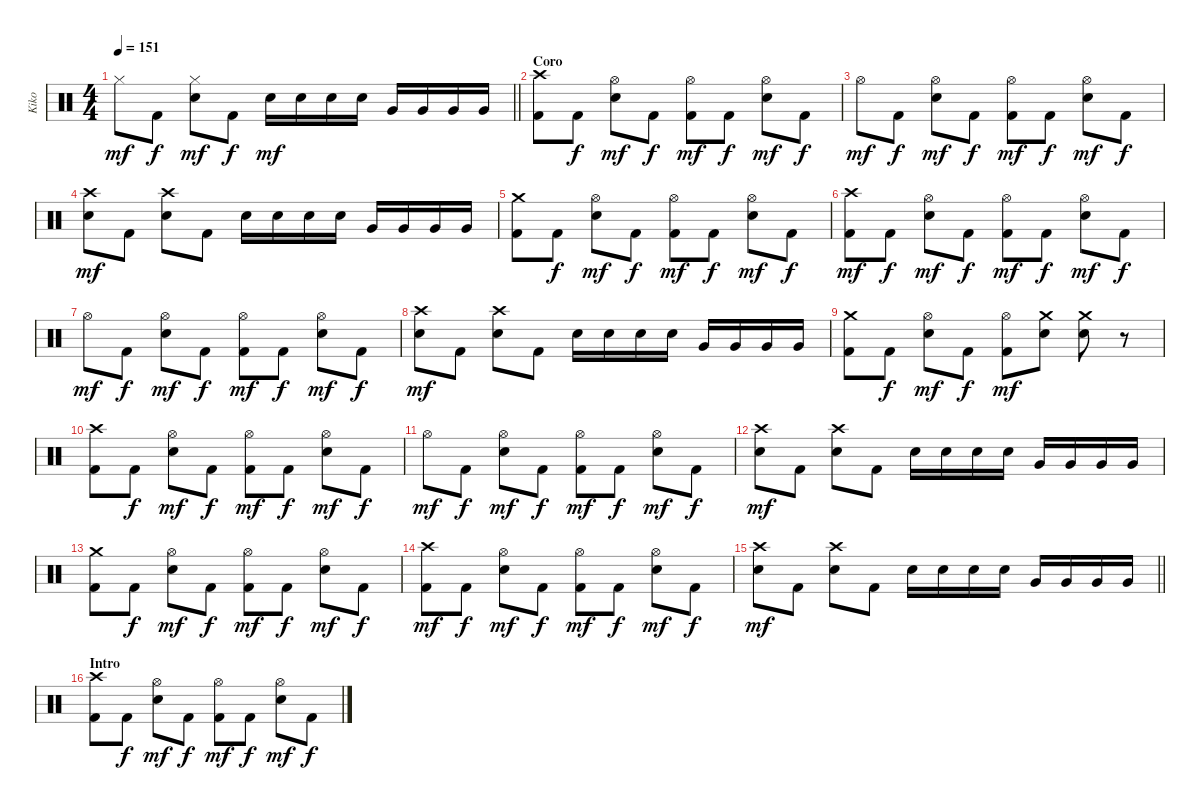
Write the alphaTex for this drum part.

\track ("Kiko" "Kiko") {instrument percussion}
\staff {score}
\articulation defaults
\ts (4 4)
\tempo 151
\clef neutral
\barLineRight lightlight
\ks c "Hi-Hat (closed)".8{dy mf} "Kick (hit) 2".8{dy f}
("Hi-Hat (closed)" "Electric Snare (hit)").8{dy mf} "Kick (hit) 2".8{dy f} "Electric Snare (hit)".16{dy mf} "Electric Snare (hit)".16 "Electric Snare (hit)".16 "Electric Snare (hit)".16 "Very Low Tom (hit)".16 "Very Low Tom (hit)".16 "Very Low Tom (hit)".16 "Very Low Tom (hit)".16 |
\section ("" "Coro")
("Crash high (hit)" "Kick (hit) 2").8 "Kick (hit) 2".8{dy f} ("Hi-Hat (open)" "Electric Snare (hit)").8{dy mf} "Kick (hit) 2".8{dy f} ("Hi-Hat (open)" "Kick (hit) 2").8{dy mf} "Kick (hit) 2".8{dy f} ("Hi-Hat (open)" "Electric Snare (hit)").8{dy mf} "Kick (hit) 2".8{dy f} |
"Hi-Hat (open)".8{dy mf} "Kick (hit) 2".8{dy f} ("Hi-Hat (open)" "Electric Snare (hit)").8{dy mf} "Kick (hit) 2".8{dy f} ("Hi-Hat (open)" "Kick (hit) 2").8{dy mf} "Kick (hit) 2".8{dy f} ("Hi-Hat (open)" "Electric Snare (hit)").8{dy mf} "Kick (hit) 2".8{dy f} |
("Crash high (hit)" "Electric Snare (hit)").8{dy mf} "Kick (hit) 2".8 ("Crash high (hit)" "Electric Snare (hit)").8 "Kick (hit) 2".8 "Electric Snare (hit)".16 "Electric Snare (hit)".16 "Electric Snare (hit)".16 "Electric Snare (hit)".16 "Very Low Tom (hit)".16 "Very Low Tom (hit)".16 "Very Low Tom (hit)".16 "Very Low Tom (hit)".16 |
("Crash medium (hit)" "Kick (hit) 2").8 "Kick (hit) 2".8{dy f} ("Hi-Hat (open)" "Electric Snare (hit)").8{dy mf} "Kick (hit) 2".8{dy f} ("Hi-Hat (open)" "Kick (hit) 2").8{dy mf} "Kick (hit) 2".8{dy f} ("Hi-Hat (open)" "Electric Snare (hit)").8{dy mf} "Kick (hit) 2".8{dy f} |
("Crash high (hit)" "Kick (hit) 2").8{dy mf} "Kick (hit) 2".8{dy f} ("Hi-Hat (open)" "Electric Snare (hit)").8{dy mf} "Kick (hit) 2".8{dy f} ("Hi-Hat (open)" "Kick (hit) 2").8{dy mf} "Kick (hit) 2".8{dy f} ("Hi-Hat (open)" "Electric Snare (hit)").8{dy mf} "Kick (hit) 2".8{dy f} |
"Hi-Hat (open)".8{dy mf} "Kick (hit) 2".8{dy f} ("Hi-Hat (open)" "Electric Snare (hit)").8{dy mf} "Kick (hit) 2".8{dy f} ("Hi-Hat (open)" "Kick (hit) 2").8{dy mf} "Kick (hit) 2".8{dy f} ("Hi-Hat (open)" "Electric Snare (hit)").8{dy mf} "Kick (hit) 2".8{dy f} |
("Crash high (hit)" "Electric Snare (hit)").8{dy mf} "Kick (hit) 2".8 ("Crash high (hit)" "Electric Snare (hit)").8 "Kick (hit) 2".8 "Electric Snare (hit)".16 "Electric Snare (hit)".16 "Electric Snare (hit)".16 "Electric Snare (hit)".16 "Very Low Tom (hit)".16 "Very Low Tom (hit)".16 "Very Low Tom (hit)".16 "Very Low Tom (hit)".16 |
("Crash medium (hit)" "Kick (hit) 2").8 "Kick (hit) 2".8{dy f} ("Hi-Hat (open)" "Electric Snare (hit)").8{dy mf} "Kick (hit) 2".8{dy f} ("Hi-Hat (open)" "Kick (hit) 2").8{dy mf} ("Crash medium (hit)" "Electric Snare (hit)").8 ("Crash medium (hit)" "Electric Snare (hit)").8 r.8 |
("Crash high (hit)" "Kick (hit) 2").8 "Kick (hit) 2".8{dy f} ("Hi-Hat (open)" "Electric Snare (hit)").8{dy mf} "Kick (hit) 2".8{dy f} ("Hi-Hat (open)" "Kick (hit) 2").8{dy mf} "Kick (hit) 2".8{dy f} ("Hi-Hat (open)" "Electric Snare (hit)").8{dy mf} "Kick (hit) 2".8{dy f} |
"Hi-Hat (open)".8{dy mf} "Kick (hit) 2".8{dy f} ("Hi-Hat (open)" "Electric Snare (hit)").8{dy mf} "Kick (hit) 2".8{dy f} ("Hi-Hat (open)" "Kick (hit) 2").8{dy mf} "Kick (hit) 2".8{dy f} ("Hi-Hat (open)" "Electric Snare (hit)").8{dy mf} "Kick (hit) 2".8{dy f} |
("Crash high (hit)" "Electric Snare (hit)").8{dy mf} "Kick (hit) 2".8 ("Crash high (hit)" "Electric Snare (hit)").8 "Kick (hit) 2".8 "Electric Snare (hit)".16 "Electric Snare (hit)".16 "Electric Snare (hit)".16 "Electric Snare (hit)".16 "Very Low Tom (hit)".16 "Very Low Tom (hit)".16 "Very Low Tom (hit)".16 "Very Low Tom (hit)".16 |
("Crash medium (hit)" "Kick (hit) 2").8 "Kick (hit) 2".8{dy f} ("Hi-Hat (open)" "Electric Snare (hit)").8{dy mf} "Kick (hit) 2".8{dy f} ("Hi-Hat (open)" "Kick (hit) 2").8{dy mf} "Kick (hit) 2".8{dy f} ("Hi-Hat (open)" "Electric Snare (hit)").8{dy mf} "Kick (hit) 2".8{dy f} |
("Crash high (hit)" "Kick (hit) 2").8{dy mf} "Kick (hit) 2".8{dy f} ("Hi-Hat (open)" "Electric Snare (hit)").8{dy mf} "Kick (hit) 2".8{dy f} ("Hi-Hat (open)" "Kick (hit) 2").8{dy mf} "Kick (hit) 2".8{dy f} ("Hi-Hat (open)" "Electric Snare (hit)").8{dy mf} "Kick (hit) 2".8{dy f} |
\barLineRight lightlight
("Crash high (hit)" "Electric Snare (hit)").8{dy mf} "Kick (hit) 2".8 ("Crash high (hit)" "Electric Snare (hit)").8 "Kick (hit) 2".8 "Electric Snare (hit)".16 "Electric Snare (hit)".16 "Electric Snare (hit)".16 "Electric Snare (hit)".16 "Very Low Tom (hit)".16 "Very Low Tom (hit)".16 "Very Low Tom (hit)".16 "Very Low Tom (hit)".16 |
\section ("" "Intro")
("Crash high (hit)" "Kick (hit) 2").8 "Kick (hit) 2".8{dy f} ("Hi-Hat (open)" "Electric Snare (hit)").8{dy mf} "Kick (hit) 2".8{dy f} ("Hi-Hat (open)" "Kick (hit) 2").8{dy mf} "Kick (hit) 2".8{dy f} ("Hi-Hat (open)" "Electric Snare (hit)").8{dy mf} "Kick (hit) 2".8{dy f}
